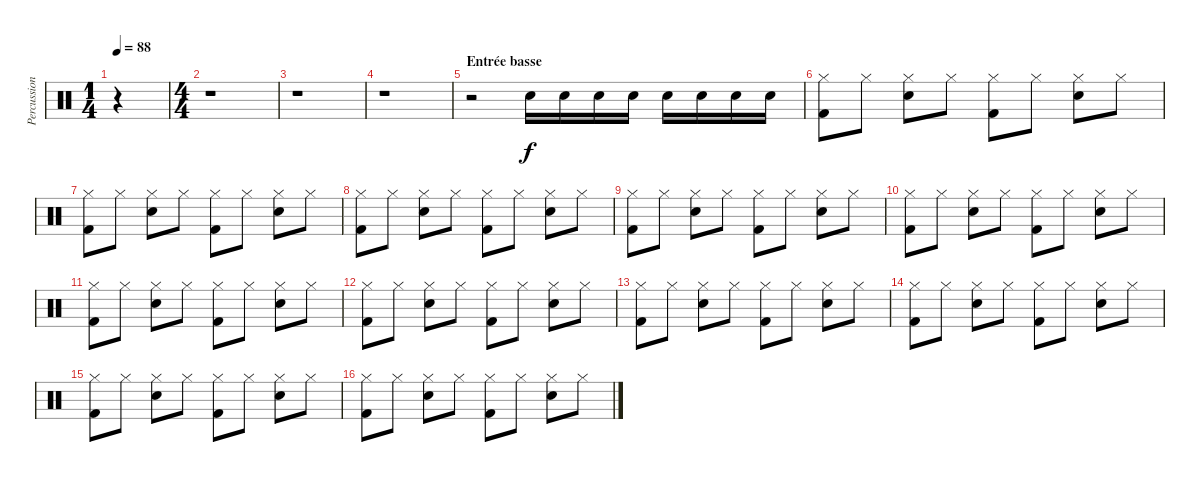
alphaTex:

\track ("Percussions" "Percussion") {instrument percussion}
\staff {score}
\articulation defaults
\ts (1 4)
\tempo 88
\clef neutral
\ks c
r.4{dy f} |
\ts (4 4)
r.1 |
r.1 |
r.1 |
\section ("" "Entrée basse")
r.2 "Snare (hit) 2".16 "Snare (hit) 2".16 "Snare (hit) 2".16 "Snare (hit) 2".16 "Snare (hit) 2".16 "Snare (hit) 2".16 "Snare (hit) 2".16 "Snare (hit) 2".16 |
("Hi-Hat (closed)" "Kick (hit) 2").8 "Hi-Hat (closed)".8 ("Hi-Hat (closed)" "Snare (hit) 2").8 "Hi-Hat (closed)".8 ("Hi-Hat (closed)" "Kick (hit) 2").8 "Hi-Hat (closed)".8 ("Hi-Hat (closed)" "Snare (hit) 2").8 "Hi-Hat (closed)".8 |
("Hi-Hat (closed)" "Kick (hit) 2").8 "Hi-Hat (closed)".8 ("Hi-Hat (closed)" "Snare (hit) 2").8 "Hi-Hat (closed)".8 ("Hi-Hat (closed)" "Kick (hit) 2").8 "Hi-Hat (closed)".8 ("Hi-Hat (closed)" "Snare (hit) 2").8 "Hi-Hat (closed)".8 |
("Hi-Hat (closed)" "Kick (hit) 2").8 "Hi-Hat (closed)".8 ("Hi-Hat (closed)" "Snare (hit) 2").8 "Hi-Hat (closed)".8 ("Hi-Hat (closed)" "Kick (hit) 2").8 "Hi-Hat (closed)".8 ("Hi-Hat (closed)" "Snare (hit) 2").8 "Hi-Hat (closed)".8 |
("Hi-Hat (closed)" "Kick (hit) 2").8 "Hi-Hat (closed)".8 ("Hi-Hat (closed)" "Snare (hit) 2").8 "Hi-Hat (closed)".8 ("Hi-Hat (closed)" "Kick (hit) 2").8 "Hi-Hat (closed)".8 ("Hi-Hat (closed)" "Snare (hit) 2").8 "Hi-Hat (closed)".8 |
("Hi-Hat (closed)" "Kick (hit) 2").8 "Hi-Hat (closed)".8 ("Hi-Hat (closed)" "Snare (hit) 2").8 "Hi-Hat (closed)".8 ("Hi-Hat (closed)" "Kick (hit) 2").8 "Hi-Hat (closed)".8 ("Hi-Hat (closed)" "Snare (hit) 2").8 "Hi-Hat (closed)".8 |
("Hi-Hat (closed)" "Kick (hit) 2").8 "Hi-Hat (closed)".8 ("Hi-Hat (closed)" "Snare (hit) 2").8 "Hi-Hat (closed)".8 ("Hi-Hat (closed)" "Kick (hit) 2").8 "Hi-Hat (closed)".8 ("Hi-Hat (closed)" "Snare (hit) 2").8 "Hi-Hat (closed)".8 |
("Hi-Hat (closed)" "Kick (hit) 2").8 "Hi-Hat (closed)".8 ("Hi-Hat (closed)" "Snare (hit) 2").8 "Hi-Hat (closed)".8 ("Hi-Hat (closed)" "Kick (hit) 2").8 "Hi-Hat (closed)".8 ("Hi-Hat (closed)" "Snare (hit) 2").8 "Hi-Hat (closed)".8 |
("Hi-Hat (closed)" "Kick (hit) 2").8 "Hi-Hat (closed)".8 ("Hi-Hat (closed)" "Snare (hit) 2").8 "Hi-Hat (closed)".8 ("Hi-Hat (closed)" "Kick (hit) 2").8 "Hi-Hat (closed)".8 ("Hi-Hat (closed)" "Snare (hit) 2").8 "Hi-Hat (closed)".8 |
("Hi-Hat (closed)" "Kick (hit) 2").8 "Hi-Hat (closed)".8 ("Hi-Hat (closed)" "Snare (hit) 2").8 "Hi-Hat (closed)".8 ("Hi-Hat (closed)" "Kick (hit) 2").8 "Hi-Hat (closed)".8 ("Hi-Hat (closed)" "Snare (hit) 2").8 "Hi-Hat (closed)".8 |
("Hi-Hat (closed)" "Kick (hit) 2").8 "Hi-Hat (closed)".8 ("Hi-Hat (closed)" "Snare (hit) 2").8 "Hi-Hat (closed)".8 ("Hi-Hat (closed)" "Kick (hit) 2").8 "Hi-Hat (closed)".8 ("Hi-Hat (closed)" "Snare (hit) 2").8 "Hi-Hat (closed)".8 |
("Hi-Hat (closed)" "Kick (hit) 2").8 "Hi-Hat (closed)".8 ("Hi-Hat (closed)" "Snare (hit) 2").8 "Hi-Hat (closed)".8 ("Hi-Hat (closed)" "Kick (hit) 2").8 "Hi-Hat (closed)".8 ("Hi-Hat (closed)" "Snare (hit) 2").8 "Hi-Hat (closed)".8
